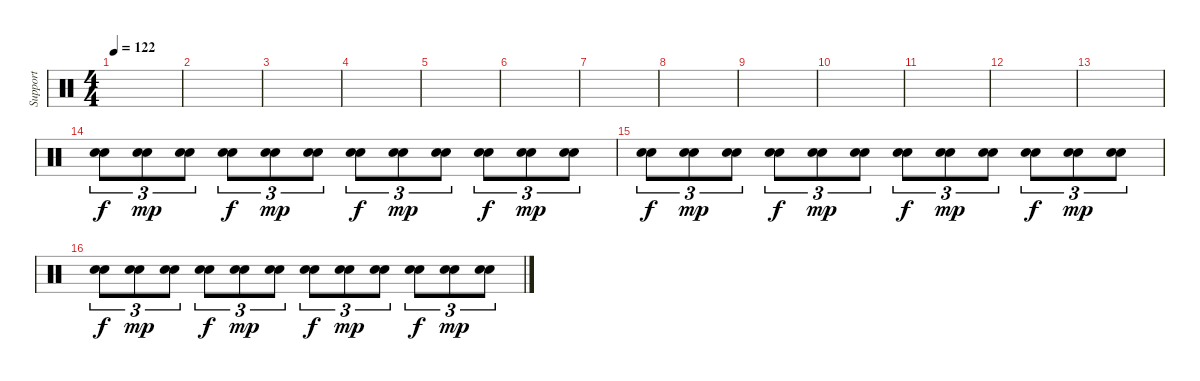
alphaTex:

\track ("Support" "Support") {instrument percussion}
\staff {score}
\articulation defaults
\ts (4 4)
\tempo 122
\clef neutral
\ks c
|
|
|
|
|
|
|
|
|
|
|
|
|
("Snare (hit) 2" "Electric Snare (hit)").8{tu (3 2) dy f volume 16} ("Snare (hit) 2" "Electric Snare (hit)").8{tu (3 2) dy mp} ("Snare (hit) 2" "Electric Snare (hit)").8{tu (3 2)} ("Snare (hit) 2" "Electric Snare (hit)").8{tu (3 2) dy f} ("Snare (hit) 2" "Electric Snare (hit)").8{tu (3 2) dy mp} ("Snare (hit) 2" "Electric Snare (hit)").8{tu (3 2)} ("Snare (hit) 2" "Electric Snare (hit)").8{tu (3 2) dy f} ("Snare (hit) 2" "Electric Snare (hit)").8{tu (3 2) dy mp} ("Snare (hit) 2" "Electric Snare (hit)").8{tu (3 2)} ("Snare (hit) 2" "Electric Snare (hit)").8{tu (3 2) dy f} ("Snare (hit) 2" "Electric Snare (hit)").8{tu (3 2) dy mp} ("Snare (hit) 2" "Electric Snare (hit)").8{tu (3 2)} |
("Snare (hit) 2" "Electric Snare (hit)").8{tu (3 2) dy f} ("Snare (hit) 2" "Electric Snare (hit)").8{tu (3 2) dy mp} ("Snare (hit) 2" "Electric Snare (hit)").8{tu (3 2)} ("Snare (hit) 2" "Electric Snare (hit)").8{tu (3 2) dy f} ("Snare (hit) 2" "Electric Snare (hit)").8{tu (3 2) dy mp} ("Snare (hit) 2" "Electric Snare (hit)").8{tu (3 2)} ("Snare (hit) 2" "Electric Snare (hit)").8{tu (3 2) dy f} ("Snare (hit) 2" "Electric Snare (hit)").8{tu (3 2) dy mp} ("Snare (hit) 2" "Electric Snare (hit)").8{tu (3 2)} ("Snare (hit) 2" "Electric Snare (hit)").8{tu (3 2) dy f} ("Snare (hit) 2" "Electric Snare (hit)").8{tu (3 2) dy mp} ("Snare (hit) 2" "Electric Snare (hit)").8{tu (3 2)} |
("Snare (hit) 2" "Electric Snare (hit)").8{tu (3 2) dy f} ("Snare (hit) 2" "Electric Snare (hit)").8{tu (3 2) dy mp} ("Snare (hit) 2" "Electric Snare (hit)").8{tu (3 2)} ("Snare (hit) 2" "Electric Snare (hit)").8{tu (3 2) dy f} ("Snare (hit) 2" "Electric Snare (hit)").8{tu (3 2) dy mp} ("Snare (hit) 2" "Electric Snare (hit)").8{tu (3 2)} ("Snare (hit) 2" "Electric Snare (hit)").8{tu (3 2) dy f} ("Snare (hit) 2" "Electric Snare (hit)").8{tu (3 2) dy mp} ("Snare (hit) 2" "Electric Snare (hit)").8{tu (3 2)} ("Snare (hit) 2" "Electric Snare (hit)").8{tu (3 2) dy f} ("Snare (hit) 2" "Electric Snare (hit)").8{tu (3 2) dy mp} ("Snare (hit) 2" "Electric Snare (hit)").8{tu (3 2)}
